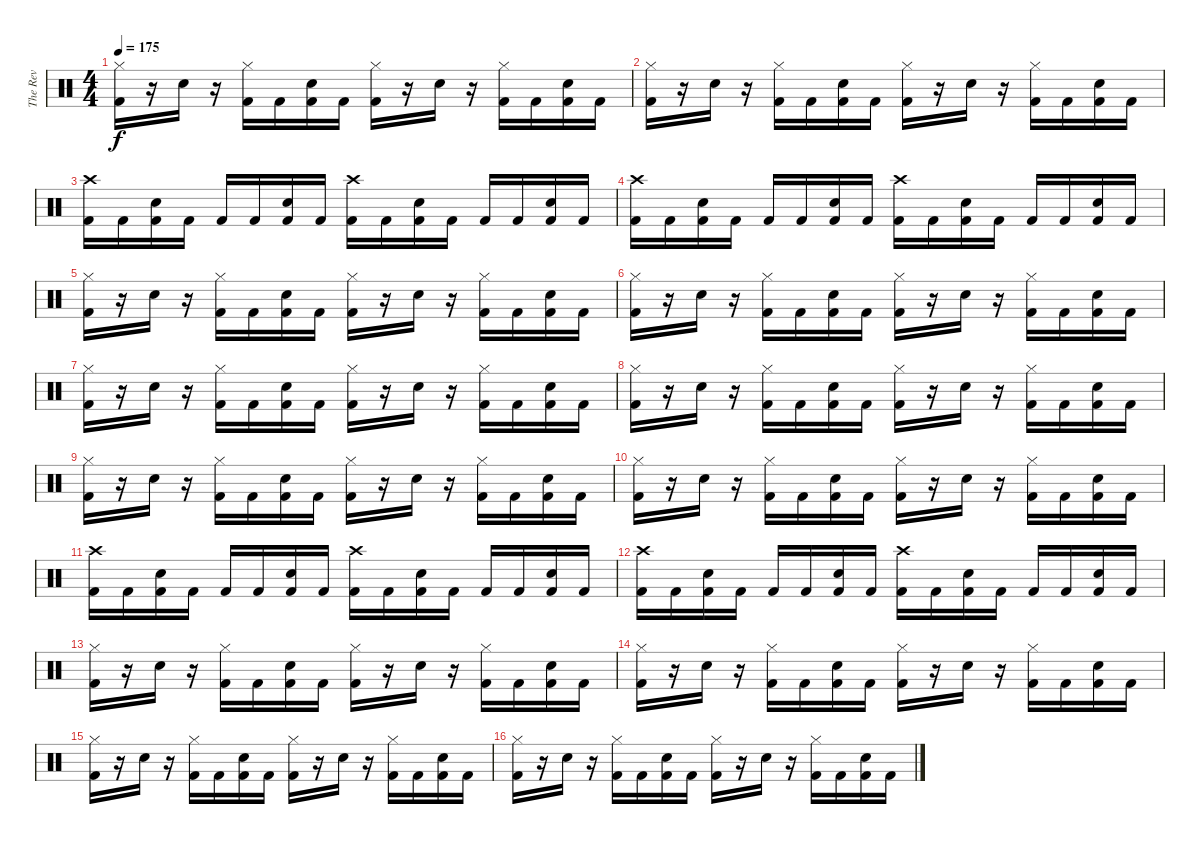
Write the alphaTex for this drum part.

\track ("The Rev" "The Rev") {instrument percussion}
\staff {score}
\articulation defaults
\ts (4 4)
\tempo 175
\clef neutral
\ks c
("Hi-Hat (closed)" "Kick (hit) 2").16{dy f} r.16 "Electric Snare (hit)".16 r.16 ("Hi-Hat (closed)" "Kick (hit) 2").16 "Kick (hit) 2".16 ("Electric Snare (hit)" "Kick (hit) 2").16 "Kick (hit) 2".16 ("Hi-Hat (closed)" "Kick (hit) 2").16 r.16 "Electric Snare (hit)".16 r.16 ("Hi-Hat (closed)" "Kick (hit) 2").16 "Kick (hit) 2".16 ("Electric Snare (hit)" "Kick (hit) 2").16 "Kick (hit) 2".16 |
("Hi-Hat (closed)" "Kick (hit) 2").16 r.16 "Electric Snare (hit)".16 r.16 ("Hi-Hat (closed)" "Kick (hit) 2").16 "Kick (hit) 2".16 ("Electric Snare (hit)" "Kick (hit) 2").16 "Kick (hit) 2".16 ("Hi-Hat (closed)" "Kick (hit) 2").16 r.16 "Electric Snare (hit)".16 r.16 ("Hi-Hat (closed)" "Kick (hit) 2").16 "Kick (hit) 2".16 ("Electric Snare (hit)" "Kick (hit) 2").16 "Kick (hit) 2".16 |
("Crash high (hit)" "Kick (hit) 2").16 "Kick (hit) 2".16 ("Electric Snare (hit)" "Kick (hit) 2").16 "Kick (hit) 2".16 "Kick (hit) 2".16 "Kick (hit) 2".16 ("Electric Snare (hit)" "Kick (hit) 2").16 "Kick (hit) 2".16 ("Crash high (hit)" "Kick (hit) 2").16 "Kick (hit) 2".16 ("Electric Snare (hit)" "Kick (hit) 2").16 "Kick (hit) 2".16 "Kick (hit) 2".16 "Kick (hit) 2".16 ("Electric Snare (hit)" "Kick (hit) 2").16 "Kick (hit) 2".16 |
("Crash high (hit)" "Kick (hit) 2").16 "Kick (hit) 2".16 ("Electric Snare (hit)" "Kick (hit) 2").16 "Kick (hit) 2".16 "Kick (hit) 2".16 "Kick (hit) 2".16 ("Electric Snare (hit)" "Kick (hit) 2").16 "Kick (hit) 2".16 ("Crash high (hit)" "Kick (hit) 2").16 "Kick (hit) 2".16 ("Electric Snare (hit)" "Kick (hit) 2").16 "Kick (hit) 2".16 "Kick (hit) 2".16 "Kick (hit) 2".16 ("Electric Snare (hit)" "Kick (hit) 2").16 "Kick (hit) 2".16 |
("Hi-Hat (closed)" "Kick (hit) 2").16 r.16 "Electric Snare (hit)".16 r.16 ("Hi-Hat (closed)" "Kick (hit) 2").16 "Kick (hit) 2".16 ("Electric Snare (hit)" "Kick (hit) 2").16 "Kick (hit) 2".16 ("Hi-Hat (closed)" "Kick (hit) 2").16 r.16 "Electric Snare (hit)".16 r.16 ("Hi-Hat (closed)" "Kick (hit) 2").16 "Kick (hit) 2".16 ("Electric Snare (hit)" "Kick (hit) 2").16 "Kick (hit) 2".16 |
("Hi-Hat (closed)" "Kick (hit) 2").16 r.16 "Electric Snare (hit)".16 r.16 ("Hi-Hat (closed)" "Kick (hit) 2").16 "Kick (hit) 2".16 ("Electric Snare (hit)" "Kick (hit) 2").16 "Kick (hit) 2".16 ("Hi-Hat (closed)" "Kick (hit) 2").16 r.16 "Electric Snare (hit)".16 r.16 ("Hi-Hat (closed)" "Kick (hit) 2").16 "Kick (hit) 2".16 ("Electric Snare (hit)" "Kick (hit) 2").16 "Kick (hit) 2".16 |
("Hi-Hat (closed)" "Kick (hit) 2").16 r.16 "Electric Snare (hit)".16 r.16 ("Hi-Hat (closed)" "Kick (hit) 2").16 "Kick (hit) 2".16 ("Electric Snare (hit)" "Kick (hit) 2").16 "Kick (hit) 2".16 ("Hi-Hat (closed)" "Kick (hit) 2").16 r.16 "Electric Snare (hit)".16 r.16 ("Hi-Hat (closed)" "Kick (hit) 2").16 "Kick (hit) 2".16 ("Electric Snare (hit)" "Kick (hit) 2").16 "Kick (hit) 2".16 |
("Hi-Hat (closed)" "Kick (hit) 2").16 r.16 "Electric Snare (hit)".16 r.16 ("Hi-Hat (closed)" "Kick (hit) 2").16 "Kick (hit) 2".16 ("Electric Snare (hit)" "Kick (hit) 2").16 "Kick (hit) 2".16 ("Hi-Hat (closed)" "Kick (hit) 2").16 r.16 "Electric Snare (hit)".16 r.16 ("Hi-Hat (closed)" "Kick (hit) 2").16 "Kick (hit) 2".16 ("Electric Snare (hit)" "Kick (hit) 2").16 "Kick (hit) 2".16 |
("Hi-Hat (closed)" "Kick (hit) 2").16 r.16 "Electric Snare (hit)".16 r.16 ("Hi-Hat (closed)" "Kick (hit) 2").16 "Kick (hit) 2".16 ("Electric Snare (hit)" "Kick (hit) 2").16 "Kick (hit) 2".16 ("Hi-Hat (closed)" "Kick (hit) 2").16 r.16 "Electric Snare (hit)".16 r.16 ("Hi-Hat (closed)" "Kick (hit) 2").16 "Kick (hit) 2".16 ("Electric Snare (hit)" "Kick (hit) 2").16 "Kick (hit) 2".16 |
("Hi-Hat (closed)" "Kick (hit) 2").16 r.16 "Electric Snare (hit)".16 r.16 ("Hi-Hat (closed)" "Kick (hit) 2").16 "Kick (hit) 2".16 ("Electric Snare (hit)" "Kick (hit) 2").16 "Kick (hit) 2".16 ("Hi-Hat (closed)" "Kick (hit) 2").16 r.16 "Electric Snare (hit)".16 r.16 ("Hi-Hat (closed)" "Kick (hit) 2").16 "Kick (hit) 2".16 ("Electric Snare (hit)" "Kick (hit) 2").16 "Kick (hit) 2".16 |
("Crash high (hit)" "Kick (hit) 2").16 "Kick (hit) 2".16 ("Electric Snare (hit)" "Kick (hit) 2").16 "Kick (hit) 2".16 "Kick (hit) 2".16 "Kick (hit) 2".16 ("Electric Snare (hit)" "Kick (hit) 2").16 "Kick (hit) 2".16 ("Crash high (hit)" "Kick (hit) 2").16 "Kick (hit) 2".16 ("Electric Snare (hit)" "Kick (hit) 2").16 "Kick (hit) 2".16 "Kick (hit) 2".16 "Kick (hit) 2".16 ("Electric Snare (hit)" "Kick (hit) 2").16 "Kick (hit) 2".16 |
("Crash high (hit)" "Kick (hit) 2").16 "Kick (hit) 2".16 ("Electric Snare (hit)" "Kick (hit) 2").16 "Kick (hit) 2".16 "Kick (hit) 2".16 "Kick (hit) 2".16 ("Electric Snare (hit)" "Kick (hit) 2").16 "Kick (hit) 2".16 ("Crash high (hit)" "Kick (hit) 2").16 "Kick (hit) 2".16 ("Electric Snare (hit)" "Kick (hit) 2").16 "Kick (hit) 2".16 "Kick (hit) 2".16 "Kick (hit) 2".16 ("Electric Snare (hit)" "Kick (hit) 2").16 "Kick (hit) 2".16 |
("Hi-Hat (closed)" "Kick (hit) 2").16 r.16 "Electric Snare (hit)".16 r.16 ("Hi-Hat (closed)" "Kick (hit) 2").16 "Kick (hit) 2".16 ("Electric Snare (hit)" "Kick (hit) 2").16 "Kick (hit) 2".16 ("Hi-Hat (closed)" "Kick (hit) 2").16 r.16 "Electric Snare (hit)".16 r.16 ("Hi-Hat (closed)" "Kick (hit) 2").16 "Kick (hit) 2".16 ("Electric Snare (hit)" "Kick (hit) 2").16 "Kick (hit) 2".16 |
("Hi-Hat (closed)" "Kick (hit) 2").16 r.16 "Electric Snare (hit)".16 r.16 ("Hi-Hat (closed)" "Kick (hit) 2").16 "Kick (hit) 2".16 ("Electric Snare (hit)" "Kick (hit) 2").16 "Kick (hit) 2".16 ("Hi-Hat (closed)" "Kick (hit) 2").16 r.16 "Electric Snare (hit)".16 r.16 ("Hi-Hat (closed)" "Kick (hit) 2").16 "Kick (hit) 2".16 ("Electric Snare (hit)" "Kick (hit) 2").16 "Kick (hit) 2".16 |
("Hi-Hat (closed)" "Kick (hit) 2").16 r.16 "Electric Snare (hit)".16 r.16 ("Hi-Hat (closed)" "Kick (hit) 2").16 "Kick (hit) 2".16 ("Electric Snare (hit)" "Kick (hit) 2").16 "Kick (hit) 2".16 ("Hi-Hat (closed)" "Kick (hit) 2").16 r.16 "Electric Snare (hit)".16 r.16 ("Hi-Hat (closed)" "Kick (hit) 2").16 "Kick (hit) 2".16 ("Electric Snare (hit)" "Kick (hit) 2").16 "Kick (hit) 2".16 |
("Hi-Hat (closed)" "Kick (hit) 2").16 r.16 "Electric Snare (hit)".16 r.16 ("Hi-Hat (closed)" "Kick (hit) 2").16 "Kick (hit) 2".16 ("Electric Snare (hit)" "Kick (hit) 2").16 "Kick (hit) 2".16 ("Hi-Hat (closed)" "Kick (hit) 2").16 r.16 "Electric Snare (hit)".16 r.16 ("Hi-Hat (closed)" "Kick (hit) 2").16 "Kick (hit) 2".16 ("Electric Snare (hit)" "Kick (hit) 2").16 "Kick (hit) 2".16
